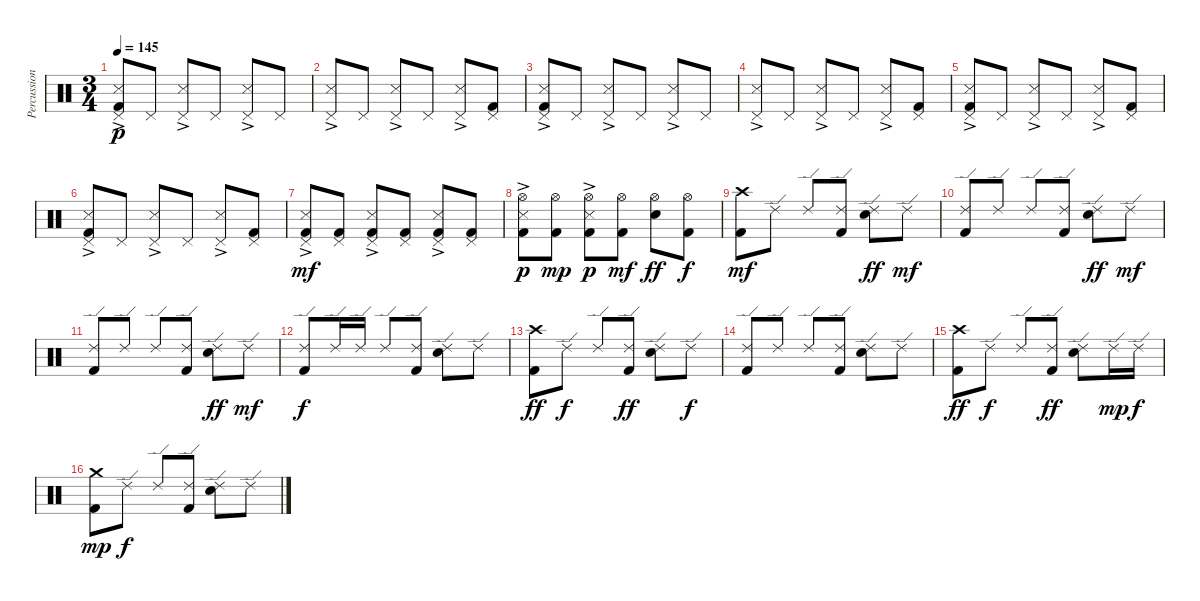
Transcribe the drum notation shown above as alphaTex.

\track ("Percussion" "Percussion") {instrument percussion}
\staff {score}
\articulation defaults
\ts (3 4)
\tempo 145
\clef neutral
\ks c
("Pedal Hi-Hat (hit)"{ac} "Snare (side stick) 3" "Kick (hit) 2").8{dy p} "Pedal Hi-Hat (hit)".8 ("Pedal Hi-Hat (hit)"{ac} "Snare (side stick) 3").8 "Pedal Hi-Hat (hit)".8 ("Pedal Hi-Hat (hit)"{ac} "Snare (side stick) 3").8 "Pedal Hi-Hat (hit)".8 |
("Pedal Hi-Hat (hit)"{ac} "Snare (side stick) 3").8 "Pedal Hi-Hat (hit)".8 ("Pedal Hi-Hat (hit)"{ac} "Snare (side stick) 3").8 "Pedal Hi-Hat (hit)".8 ("Pedal Hi-Hat (hit)"{ac} "Snare (side stick) 3").8 ("Pedal Hi-Hat (hit)" "Kick (hit) 2").8 |
("Pedal Hi-Hat (hit)"{ac} "Snare (side stick) 3" "Kick (hit) 2").8 "Pedal Hi-Hat (hit)".8 ("Pedal Hi-Hat (hit)"{ac} "Snare (side stick) 3").8 "Pedal Hi-Hat (hit)".8 ("Pedal Hi-Hat (hit)"{ac} "Snare (side stick) 3").8 "Pedal Hi-Hat (hit)".8 |
("Pedal Hi-Hat (hit)"{ac} "Snare (side stick) 3").8 "Pedal Hi-Hat (hit)".8 ("Pedal Hi-Hat (hit)"{ac} "Snare (side stick) 3").8 "Pedal Hi-Hat (hit)".8 ("Pedal Hi-Hat (hit)"{ac} "Snare (side stick) 3").8 ("Pedal Hi-Hat (hit)" "Kick (hit) 2").8 |
("Pedal Hi-Hat (hit)"{ac} "Snare (side stick) 3" "Kick (hit) 2").8 "Pedal Hi-Hat (hit)".8 ("Pedal Hi-Hat (hit)"{ac} "Snare (side stick) 3").8 "Pedal Hi-Hat (hit)".8 ("Pedal Hi-Hat (hit)"{ac} "Snare (side stick) 3").8 ("Pedal Hi-Hat (hit)" "Kick (hit) 2").8 |
("Pedal Hi-Hat (hit)"{ac} "Snare (side stick) 3" "Kick (hit) 2").8 "Pedal Hi-Hat (hit)".8 ("Pedal Hi-Hat (hit)"{ac} "Snare (side stick) 3").8 "Pedal Hi-Hat (hit)".8 ("Pedal Hi-Hat (hit)"{ac} "Snare (side stick) 3").8 ("Pedal Hi-Hat (hit)" "Kick (hit) 2").8 |
("Pedal Hi-Hat (hit)"{ac} "Snare (side stick) 3" "Kick (hit) 2").8{dy mf} ("Pedal Hi-Hat (hit)" "Kick (hit) 2").8 ("Pedal Hi-Hat (hit)"{ac} "Snare (side stick) 3" "Kick (hit) 2").8 ("Pedal Hi-Hat (hit)" "Kick (hit) 2").8 ("Pedal Hi-Hat (hit)"{ac} "Snare (side stick) 3" "Kick (hit) 2").8 ("Pedal Hi-Hat (hit)" "Kick (hit) 2").8 |
("Hi-Hat (open)"{ac} "Snare (side stick) 3" "Kick (hit) 2").8{dy p} ("Hi-Hat (open)" "Kick (hit) 2").8{dy mp} ("Hi-Hat (open)"{ac} "Snare (side stick) 3" "Kick (hit) 2").8{dy p} ("Hi-Hat (open)" "Kick (hit) 2").8{dy mf} ("Hi-Hat (open)" "Electric Snare (hit)").8{dy ff} ("Hi-Hat (open)" "Kick (hit) 2").8{dy f} |
("Kick (hit) 2" "Crash high (hit)").8{dy mf} "Ride (edge) 2".8 "Ride (edge) 2".8 ("Ride (edge) 2" "Kick (hit) 2").8 ("Ride (edge) 2" "Electric Snare (hit)").8{dy ff} "Ride (edge) 2".8{dy mf} |
("Ride (edge) 2" "Kick (hit) 2").8 "Ride (edge) 2".8 "Ride (edge) 2".8 ("Ride (edge) 2" "Kick (hit) 2").8 ("Ride (edge) 2" "Electric Snare (hit)").8{dy ff} "Ride (edge) 2".8{dy mf} |
("Ride (edge) 2" "Kick (hit) 2").8 "Ride (edge) 2".8 "Ride (edge) 2".8 ("Ride (edge) 2" "Kick (hit) 2").8 ("Ride (edge) 2" "Electric Snare (hit)").8{dy ff} "Ride (edge) 2".8{dy mf} |
("Ride (edge) 2" "Kick (hit) 2").8{dy f} "Ride (edge) 2".16 "Ride (edge) 2".16 "Ride (edge) 2".8 ("Ride (edge) 2" "Kick (hit) 2").8 ("Ride (edge) 2" "Electric Snare (hit)").8 "Ride (edge) 2".8 |
("Crash high (hit)" "Kick (hit) 2").8{dy ff} "Ride (edge) 2".8{dy f} "Ride (edge) 2".8 ("Ride (edge) 2" "Kick (hit) 2").8{dy ff} ("Ride (edge) 2" "Electric Snare (hit)").8 "Ride (edge) 2".8{dy f} |
("Ride (edge) 2" "Kick (hit) 2").8 "Ride (edge) 2".8 "Ride (edge) 2".8 ("Ride (edge) 2" "Kick (hit) 2").8 ("Ride (edge) 2" "Electric Snare (hit)").8 "Ride (edge) 2".8 |
("Crash high (hit)" "Kick (hit) 2").8{dy ff} "Ride (edge) 2".8{dy f} "Ride (edge) 2".8 ("Ride (edge) 2" "Kick (hit) 2").8{dy ff} ("Ride (edge) 2" "Electric Snare (hit)").8 "Ride (edge) 2".16{dy mp} "Ride (edge) 2".16{dy f} |
("Crash medium (hit)" "Kick (hit) 2").8{dy mp} "Ride (edge) 2".8{dy f} "Ride (edge) 2".8 ("Ride (edge) 2" "Kick (hit) 2").8 ("Ride (edge) 2" "Electric Snare (hit)").8 "Ride (edge) 2".8
